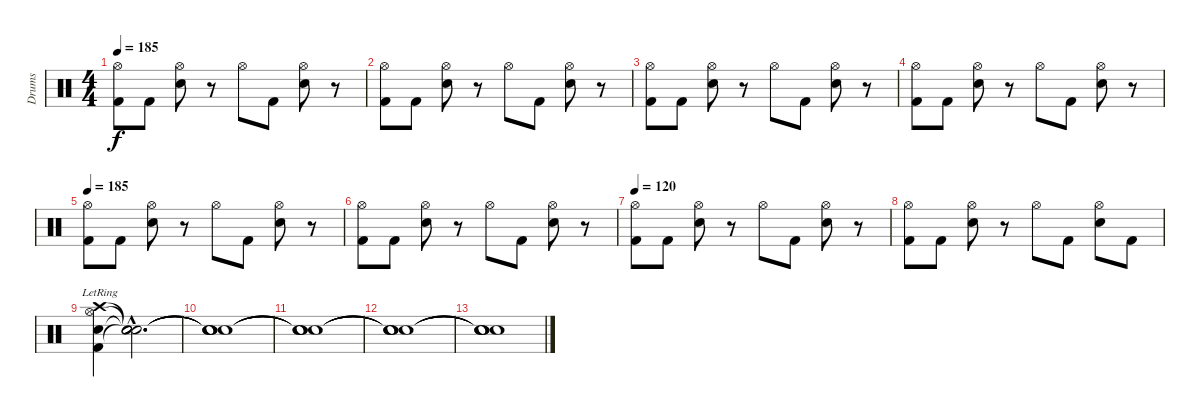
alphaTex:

\track ("Drums" "Drums") {instrument percussion}
\staff {score}
\articulation defaults
\ts (4 4)
\tempo 185
\clef neutral
\ks c
("Hi-Hat (open)" "Kick (hit) 2").8{dy f} "Kick (hit) 2".8 ("Hi-Hat (open)" "Electric Snare (hit)").8 r.8 "Hi-Hat (open)".8 "Kick (hit) 2".8 ("Hi-Hat (open)" "Electric Snare (hit)").8 r.8 |
("Hi-Hat (open)" "Kick (hit) 2").8 "Kick (hit) 2".8 ("Hi-Hat (open)" "Electric Snare (hit)").8 r.8 "Hi-Hat (open)".8 "Kick (hit) 2".8 ("Hi-Hat (open)" "Electric Snare (hit)").8 r.8 |
("Hi-Hat (open)" "Kick (hit) 2").8 "Kick (hit) 2".8 ("Hi-Hat (open)" "Electric Snare (hit)").8 r.8 "Hi-Hat (open)".8 "Kick (hit) 2".8 ("Hi-Hat (open)" "Electric Snare (hit)").8 r.8 |
("Hi-Hat (open)" "Kick (hit) 2").8 "Kick (hit) 2".8 ("Hi-Hat (open)" "Electric Snare (hit)").8 r.8 "Hi-Hat (open)".8 "Kick (hit) 2".8 ("Hi-Hat (open)" "Electric Snare (hit)").8 r.8 |
\tempo 185
("Hi-Hat (open)" "Kick (hit) 2").8 "Kick (hit) 2".8 ("Hi-Hat (open)" "Electric Snare (hit)").8 r.8 "Hi-Hat (open)".8 "Kick (hit) 2".8 ("Hi-Hat (open)" "Electric Snare (hit)").8 r.8 |
("Hi-Hat (open)" "Kick (hit) 2").8 "Kick (hit) 2".8 ("Hi-Hat (open)" "Electric Snare (hit)").8 r.8 "Hi-Hat (open)".8 "Kick (hit) 2".8 ("Hi-Hat (open)" "Electric Snare (hit)").8 r.8 |
\tempo 120
("Hi-Hat (open)" "Kick (hit) 2").8 "Kick (hit) 2".8 ("Hi-Hat (open)" "Electric Snare (hit)").8 r.8 "Hi-Hat (open)".8 "Kick (hit) 2".8 ("Hi-Hat (open)" "Electric Snare (hit)").8 r.8 |
("Hi-Hat (open)" "Kick (hit) 2").8 "Kick (hit) 2".8 ("Hi-Hat (open)" "Electric Snare (hit)").8 r.8 "Hi-Hat (open)".8 "Kick (hit) 2".8{volume 12} ("Hi-Hat (open)" "Electric Snare (hit)").8 "Kick (hit) 2".8 |
("Hi-Hat (open)"{lr} "Kick (hit) 2"{lr} "Electric Snare (hit)"{lr} "Crash high (hit)"{lr}).4 ("Snare (hit)"{hac t} "Snare (hit)"{hac t} "Snare (hit)"{hac t} "Snare (hit)"{hac t}).2{d} |
("Snare (hit)"{t} "Snare (hit)"{t} "Snare (hit)"{t} "Snare (hit)"{t}).1 |
("Snare (hit)"{t} "Snare (hit)"{t} "Snare (hit)"{t} "Snare (hit)"{t}).1 |
("Snare (hit)"{t} "Snare (hit)"{t} "Snare (hit)"{t} "Snare (hit)"{t}).1 |
("Snare (hit)"{t} "Snare (hit)"{t} "Snare (hit)"{t} "Snare (hit)"{t}).1
